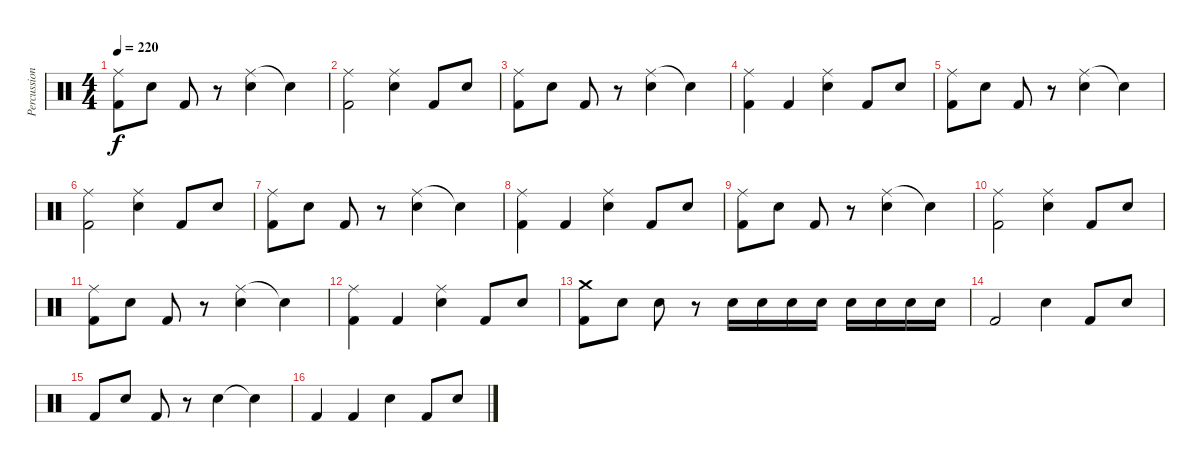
\track ("Percussions" "Percussion") {instrument percussion}
\staff {score}
\articulation defaults
\ts (4 4)
\tempo 220
\clef neutral
\ks c
("Ride (middle)" "Kick (hit) 2").8{dy f} "Electric Snare (hit)".8 "Kick (hit) 2".8 r.8 ("Ride (middle)" "Electric Snare (hit)").4 "Electric Snare (hit)"{t}.4 |
("Ride (middle)" "Kick (hit) 2").2 ("Ride (middle)" "Electric Snare (hit)").4 "Kick (hit) 2".8 "Electric Snare (hit)".8 |
("Ride (middle)" "Kick (hit) 2").8 "Electric Snare (hit)".8 "Kick (hit) 2".8 r.8 ("Ride (middle)" "Electric Snare (hit)").4 "Snare (hit)"{t}.4 |
("Ride (middle)" "Kick (hit) 2").4 "Kick (hit) 2".4 ("Ride (middle)" "Electric Snare (hit)").4 "Kick (hit) 2".8 "Electric Snare (hit)".8 |
("Ride (middle)" "Kick (hit) 2").8 "Electric Snare (hit)".8 "Kick (hit) 2".8 r.8 ("Ride (middle)" "Electric Snare (hit)").4 "Electric Snare (hit)"{t}.4 |
("Ride (middle)" "Kick (hit) 2").2 ("Ride (middle)" "Electric Snare (hit)").4 "Kick (hit) 2".8 "Electric Snare (hit)".8 |
("Ride (middle)" "Kick (hit) 2").8 "Electric Snare (hit)".8 "Kick (hit) 2".8 r.8 ("Ride (middle)" "Electric Snare (hit)").4 "Snare (hit)"{t}.4 |
("Ride (middle)" "Kick (hit) 2").4 "Kick (hit) 2".4 ("Ride (middle)" "Electric Snare (hit)").4 "Kick (hit) 2".8 "Electric Snare (hit)".8 |
("Ride (middle)" "Kick (hit) 2").8 "Electric Snare (hit)".8 "Kick (hit) 2".8 r.8 ("Ride (middle)" "Electric Snare (hit)").4 "Electric Snare (hit)"{t}.4 |
("Ride (middle)" "Kick (hit) 2").2 ("Ride (middle)" "Electric Snare (hit)").4 "Kick (hit) 2".8 "Electric Snare (hit)".8 |
("Ride (middle)" "Kick (hit) 2").8 "Electric Snare (hit)".8 "Kick (hit) 2".8 r.8 ("Ride (middle)" "Electric Snare (hit)").4 "Snare (hit)"{t}.4 |
("Ride (middle)" "Kick (hit) 2").4 "Kick (hit) 2".4 ("Ride (middle)" "Electric Snare (hit)").4 "Kick (hit) 2".8 "Electric Snare (hit)".8 |
("Crash medium (hit)" "Kick (hit) 2").8 "Electric Snare (hit)".8 "Electric Snare (hit)".8 r.8 "Electric Snare (hit)".16 "Electric Snare (hit)".16 "Electric Snare (hit)".16 "Electric Snare (hit)".16 "Electric Snare (hit)".16 "Electric Snare (hit)".16 "Electric Snare (hit)".16 "Electric Snare (hit)".16 |
"Kick (hit) 2".2 "Electric Snare (hit)".4 "Kick (hit) 2".8 "Electric Snare (hit)".8 |
"Kick (hit) 2".8 "Electric Snare (hit)".8 "Kick (hit) 2".8 r.8 "Electric Snare (hit)".4 "Snare (hit)"{t}.4 |
"Kick (hit) 2".4 "Kick (hit) 2".4 "Electric Snare (hit)".4 "Kick (hit) 2".8 "Electric Snare (hit)".8
